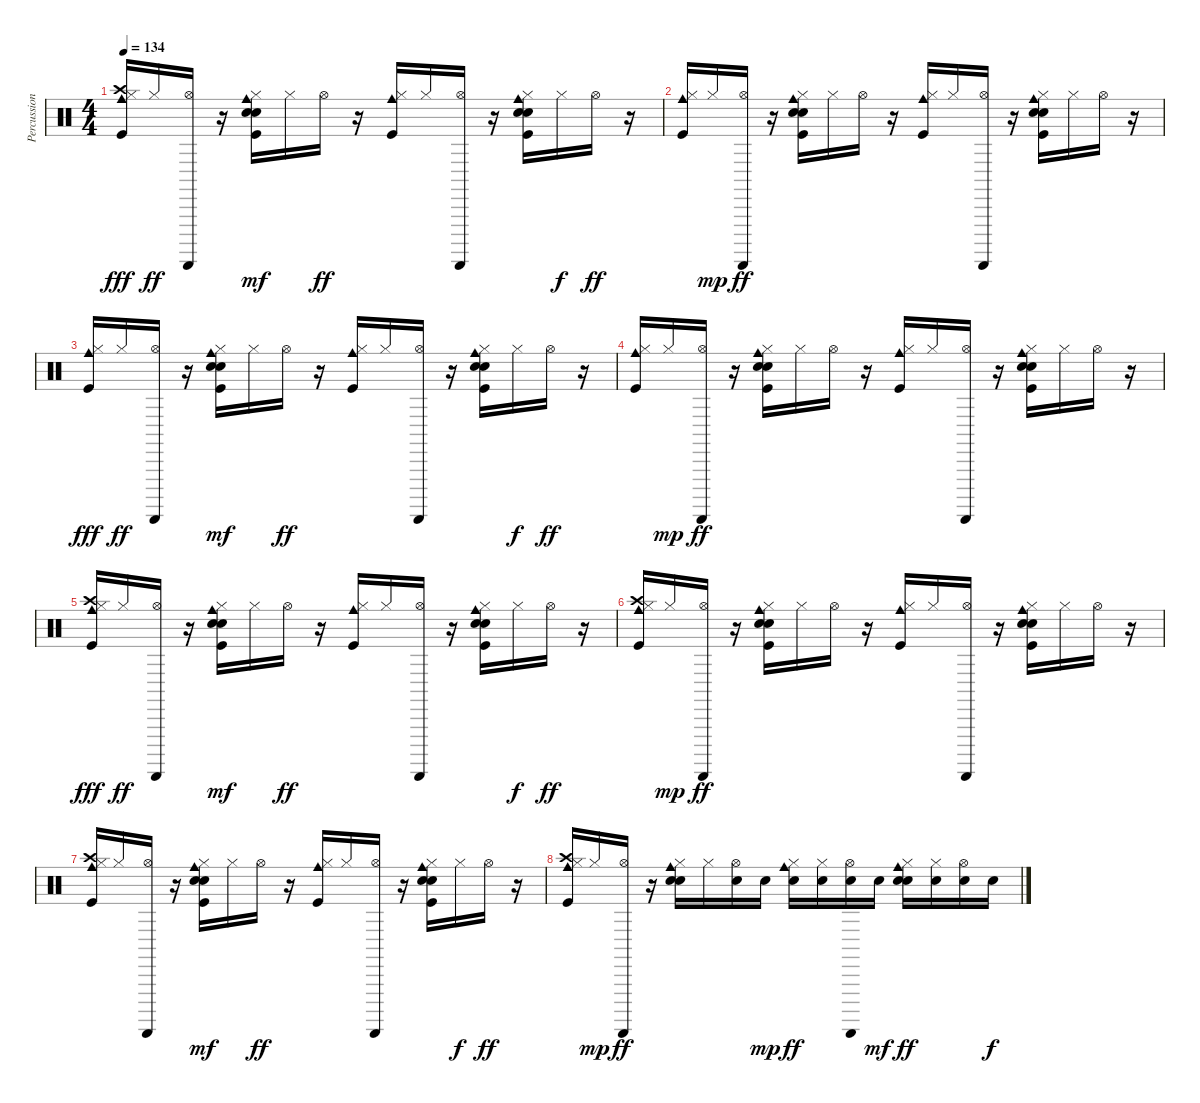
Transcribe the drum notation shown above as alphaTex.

\track ("Percussion" "Percussion") {instrument percussion}
\staff {score}
\articulation defaults
\ts (4 4)
\tempo 134
\clef neutral
\ks c
("Kick (hit)" "Hi-Hat (closed)" "Crash high (hit)" "Cowbell medium (hit)").16{dy fff} "Hi-Hat (closed)".16{dy ff} ("Hi-Hat (open)" "Guiro (scrap-return)").16 r.16 ("Kick (hit)" "Hand Clap (hit)" "Electric Snare (hit)" "Hi-Hat (closed)" "Cowbell medium (hit)").16{dy mf} "Hi-Hat (closed)".16 "Hi-Hat (open)".16{dy ff} r.16 ("Kick (hit)" "Hi-Hat (closed)" "Cowbell medium (hit)").16 "Hi-Hat (closed)".16 ("Hi-Hat (open)" "Guiro (scrap-return)").16 r.16 ("Kick (hit)" "Hand Clap (hit)" "Electric Snare (hit)" "Hi-Hat (closed)" "Cowbell medium (hit)").16 "Hi-Hat (closed)".16{dy f} "Hi-Hat (open)".16{dy ff} r.16 |
("Kick (hit)" "Hi-Hat (closed)" "Cowbell medium (hit)").16 "Hi-Hat (closed)".16{dy mp} ("Hi-Hat (open)" "Guiro (scrap-return)").16{dy ff} r.16 ("Kick (hit)" "Hand Clap (hit)" "Electric Snare (hit)" "Hi-Hat (closed)" "Cowbell medium (hit)").16 "Hi-Hat (closed)".16 "Hi-Hat (open)".16 r.16 ("Kick (hit)" "Hi-Hat (closed)" "Cowbell medium (hit)").16 "Hi-Hat (closed)".16 ("Hi-Hat (open)" "Guiro (scrap-return)").16 r.16 ("Kick (hit)" "Hand Clap (hit)" "Electric Snare (hit)" "Hi-Hat (closed)" "Cowbell medium (hit)").16 "Hi-Hat (closed)".16 "Hi-Hat (open)".16 r.16 |
("Kick (hit)" "Hi-Hat (closed)" "Cowbell medium (hit)").16{dy fff} "Hi-Hat (closed)".16{dy ff} ("Hi-Hat (open)" "Guiro (scrap-return)").16 r.16 ("Kick (hit)" "Hand Clap (hit)" "Electric Snare (hit)" "Hi-Hat (closed)" "Cowbell medium (hit)").16{dy mf} "Hi-Hat (closed)".16 "Hi-Hat (open)".16{dy ff} r.16 ("Kick (hit)" "Hi-Hat (closed)" "Cowbell medium (hit)").16 "Hi-Hat (closed)".16 ("Hi-Hat (open)" "Guiro (scrap-return)").16 r.16 ("Kick (hit)" "Hand Clap (hit)" "Electric Snare (hit)" "Hi-Hat (closed)" "Cowbell medium (hit)").16 "Hi-Hat (closed)".16{dy f} "Hi-Hat (open)".16{dy ff} r.16 |
("Kick (hit)" "Hi-Hat (closed)" "Cowbell medium (hit)").16 "Hi-Hat (closed)".16{dy mp} ("Hi-Hat (open)" "Guiro (scrap-return)").16{dy ff} r.16 ("Kick (hit)" "Hand Clap (hit)" "Electric Snare (hit)" "Hi-Hat (closed)" "Cowbell medium (hit)").16 "Hi-Hat (closed)".16 "Hi-Hat (open)".16 r.16 ("Kick (hit)" "Hi-Hat (closed)" "Cowbell medium (hit)").16 "Hi-Hat (closed)".16 ("Hi-Hat (open)" "Guiro (scrap-return)").16 r.16 ("Kick (hit)" "Hand Clap (hit)" "Electric Snare (hit)" "Hi-Hat (closed)" "Cowbell medium (hit)").16 "Hi-Hat (closed)".16 "Hi-Hat (open)".16 r.16 |
("Kick (hit)" "Hi-Hat (closed)" "Crash high (hit)" "Cowbell medium (hit)").16{dy fff} "Hi-Hat (closed)".16{dy ff} ("Hi-Hat (open)" "Guiro (scrap-return)").16 r.16 ("Kick (hit)" "Hand Clap (hit)" "Electric Snare (hit)" "Hi-Hat (closed)" "Cowbell medium (hit)").16{dy mf} "Hi-Hat (closed)".16 "Hi-Hat (open)".16{dy ff} r.16 ("Kick (hit)" "Hi-Hat (closed)" "Cowbell medium (hit)").16 "Hi-Hat (closed)".16 ("Hi-Hat (open)" "Guiro (scrap-return)").16 r.16 ("Kick (hit)" "Hand Clap (hit)" "Electric Snare (hit)" "Hi-Hat (closed)" "Cowbell medium (hit)").16 "Hi-Hat (closed)".16{dy f} "Hi-Hat (open)".16{dy ff} r.16 |
("Kick (hit)" "Hi-Hat (closed)" "Crash high (hit)" "Cowbell medium (hit)").16 "Hi-Hat (closed)".16{dy mp} ("Hi-Hat (open)" "Guiro (scrap-return)").16{dy ff} r.16 ("Kick (hit)" "Hand Clap (hit)" "Electric Snare (hit)" "Hi-Hat (closed)" "Cowbell medium (hit)").16 "Hi-Hat (closed)".16 "Hi-Hat (open)".16 r.16 ("Kick (hit)" "Hi-Hat (closed)" "Cowbell medium (hit)").16 "Hi-Hat (closed)".16 ("Hi-Hat (open)" "Guiro (scrap-return)").16 r.16 ("Kick (hit)" "Hand Clap (hit)" "Electric Snare (hit)" "Hi-Hat (closed)" "Cowbell medium (hit)").16 "Hi-Hat (closed)".16 "Hi-Hat (open)".16 r.16 |
("Kick (hit)" "Hi-Hat (closed)" "Crash high (hit)" "Cowbell medium (hit)").16 "Hi-Hat (closed)".16 ("Hi-Hat (open)" "Guiro (scrap-return)").16 r.16 ("Kick (hit)" "Hand Clap (hit)" "Electric Snare (hit)" "Hi-Hat (closed)" "Cowbell medium (hit)").16{dy mf} "Hi-Hat (closed)".16 "Hi-Hat (open)".16{dy ff} r.16 ("Kick (hit)" "Hi-Hat (closed)" "Cowbell medium (hit)").16 "Hi-Hat (closed)".16 ("Hi-Hat (open)" "Guiro (scrap-return)").16 r.16 ("Kick (hit)" "Hand Clap (hit)" "Electric Snare (hit)" "Hi-Hat (closed)" "Cowbell medium (hit)").16 "Hi-Hat (closed)".16{dy f} "Hi-Hat (open)".16{dy ff} r.16 |
("Kick (hit)" "Hi-Hat (closed)" "Crash high (hit)" "Cowbell medium (hit)").16 "Hi-Hat (closed)".16{dy mp} ("Hi-Hat (open)" "Guiro (scrap-return)").16{dy ff} r.16 ("Hand Clap (hit)" "Electric Snare (hit)" "Hi-Hat (closed)" "Cowbell medium (hit)").16 "Hi-Hat (closed)".16 ("Electric Snare (hit)" "Hi-Hat (open)").16 "Electric Snare (hit)".16{dy mp} ("Electric Snare (hit)" "Hi-Hat (closed)" "Cowbell medium (hit)").16{dy ff} ("Electric Snare (hit)" "Hi-Hat (closed)").16 ("Electric Snare (hit)" "Hi-Hat (open)" "Guiro (scrap-return)").16 "Electric Snare (hit)".16{dy mf} ("Hand Clap (hit)" "Electric Snare (hit)" "Hi-Hat (closed)" "Cowbell medium (hit)").16{dy ff} ("Electric Snare (hit)" "Hi-Hat (closed)").16 ("Electric Snare (hit)" "Hi-Hat (open)").16 "Electric Snare (hit)".16{dy f}
